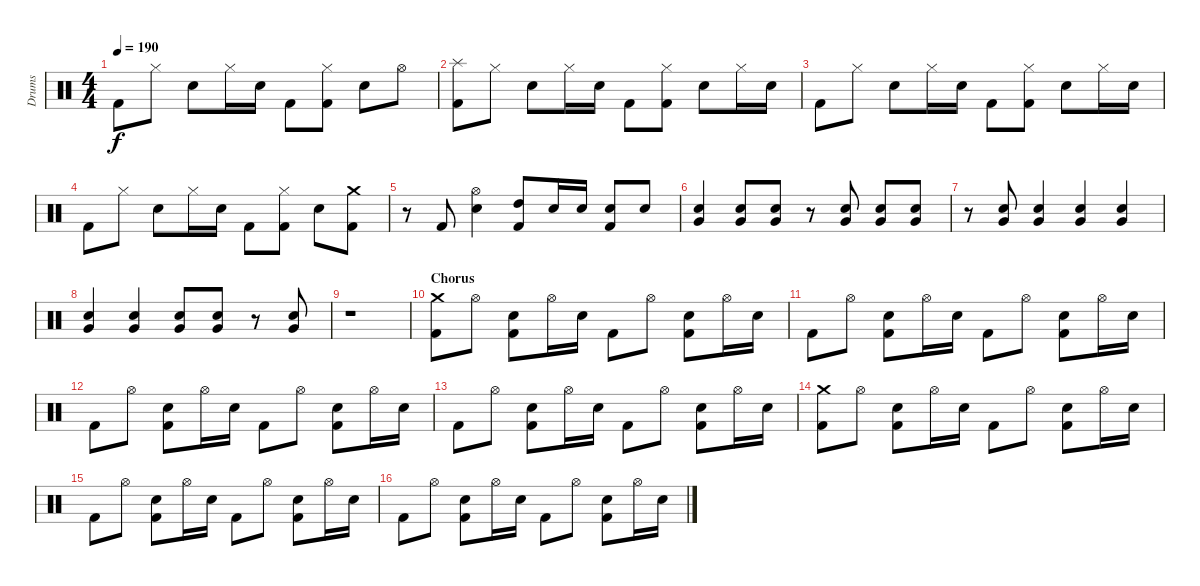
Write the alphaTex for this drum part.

\track ("Drums" "Drums") {instrument percussion}
\staff {score}
\articulation defaults
\ts (4 4)
\tempo 190
\clef neutral
\ks c "Kick (hit) 2".8{dy f} "Hi-Hat (closed)".8 "Snare (hit) 2".8 "Hi-Hat (closed)".16 "Snare (hit) 2".16 "Kick (hit) 2".8
("Hi-Hat (closed)" "Kick (hit) 2").8 "Snare (hit) 2".8 "Hi-Hat (open)".8 |
("Splash (hit)" "Kick (hit) 2").8 "Hi-Hat (closed)".8 "Snare (hit) 2".8 "Hi-Hat (closed)".16 "Snare (hit) 2".16 "Kick (hit) 2".8 ("Hi-Hat (closed)" "Kick (hit) 2").8 "Snare (hit) 2".8 "Hi-Hat (closed)".16 "Snare (hit) 2".16 |
"Kick (hit) 2".8 "Hi-Hat (closed)".8 "Snare (hit) 2".8 "Hi-Hat (closed)".16 "Snare (hit) 2".16 "Kick (hit) 2".8 ("Hi-Hat (closed)" "Kick (hit) 2").8 "Snare (hit) 2".8 "Hi-Hat (closed)".16 "Snare (hit) 2".16 |
"Kick (hit) 2".8 "Hi-Hat (closed)".8 "Snare (hit) 2".8 "Hi-Hat (closed)".16 "Snare (hit) 2".16 "Kick (hit) 2".8 ("Hi-Hat (closed)" "Kick (hit) 2").8 "Snare (hit) 2".8 ("Crash medium (hit)" "Kick (hit) 2").8 |
r.8 "Kick (hit) 2".8 ("Hi-Hat (open)" "Snare (hit) 2").4 ("High Tom (hit)" "Kick (hit) 2").8 "Snare (hit) 2".16 "Snare (hit) 2".16 ("Snare (hit) 2" "Kick (hit) 2").8 "Snare (hit) 2".8 |
("Snare (hit) 2" "Very Low Tom (hit)").4 ("Snare (hit) 2" "Very Low Tom (hit)").8 ("Snare (hit) 2" "Very Low Tom (hit)").8 r.8 ("Snare (hit) 2" "Very Low Tom (hit)").8 ("Snare (hit) 2" "Very Low Tom (hit)").8 ("Snare (hit) 2" "Very Low Tom (hit)").8 |
r.8 ("Snare (hit) 2" "Very Low Tom (hit)").8 ("Snare (hit) 2" "Very Low Tom (hit)").4 ("Snare (hit) 2" "Very Low Tom (hit)").4 ("Snare (hit) 2" "Very Low Tom (hit)").4 |
("Snare (hit) 2" "Very Low Tom (hit)").4 ("Snare (hit) 2" "Very Low Tom (hit)").4 ("Snare (hit) 2" "Very Low Tom (hit)").8 ("Snare (hit) 2" "Very Low Tom (hit)").8 r.8 ("Snare (hit) 2" "Very Low Tom (hit)").8 |
r.1 |
\section ("" "Chorus")
("Crash medium (hit)" "Kick (hit) 2").8 "Hi-Hat (open)".8 ("Snare (hit) 2" "Kick (hit) 2").8 "Hi-Hat (open)".16 "Snare (hit) 2".16 "Kick (hit) 2".8 "Hi-Hat (open)".8 ("Snare (hit) 2" "Kick (hit) 2").8 "Hi-Hat (open)".16 "Snare (hit) 2".16 |
"Kick (hit) 2".8 "Hi-Hat (open)".8 ("Snare (hit) 2" "Kick (hit) 2").8 "Hi-Hat (open)".16 "Snare (hit) 2".16 "Kick (hit) 2".8 "Hi-Hat (open)".8 ("Snare (hit) 2" "Kick (hit) 2").8 "Hi-Hat (open)".16 "Snare (hit) 2".16 |
"Kick (hit) 2".8 "Hi-Hat (open)".8 ("Snare (hit) 2" "Kick (hit) 2").8 "Hi-Hat (open)".16 "Snare (hit) 2".16 "Kick (hit) 2".8 "Hi-Hat (open)".8 ("Snare (hit) 2" "Kick (hit) 2").8 "Hi-Hat (open)".16 "Snare (hit) 2".16 |
"Kick (hit) 2".8 "Hi-Hat (open)".8 ("Snare (hit) 2" "Kick (hit) 2").8 "Hi-Hat (open)".16 "Snare (hit) 2".16 "Kick (hit) 2".8 "Hi-Hat (open)".8 ("Snare (hit) 2" "Kick (hit) 2").8 "Hi-Hat (open)".16 "Snare (hit) 2".16 |
("Crash medium (hit)" "Kick (hit) 2").8 "Hi-Hat (open)".8 ("Snare (hit) 2" "Kick (hit) 2").8 "Hi-Hat (open)".16 "Snare (hit) 2".16 "Kick (hit) 2".8 "Hi-Hat (open)".8 ("Snare (hit) 2" "Kick (hit) 2").8 "Hi-Hat (open)".16 "Snare (hit) 2".16 |
"Kick (hit) 2".8 "Hi-Hat (open)".8 ("Snare (hit) 2" "Kick (hit) 2").8 "Hi-Hat (open)".16 "Snare (hit) 2".16 "Kick (hit) 2".8 "Hi-Hat (open)".8 ("Snare (hit) 2" "Kick (hit) 2").8 "Hi-Hat (open)".16 "Snare (hit) 2".16 |
"Kick (hit) 2".8 "Hi-Hat (open)".8 ("Snare (hit) 2" "Kick (hit) 2").8 "Hi-Hat (open)".16 "Snare (hit) 2".16 "Kick (hit) 2".8 "Hi-Hat (open)".8 ("Snare (hit) 2" "Kick (hit) 2").8 "Hi-Hat (open)".16 "Snare (hit) 2".16
